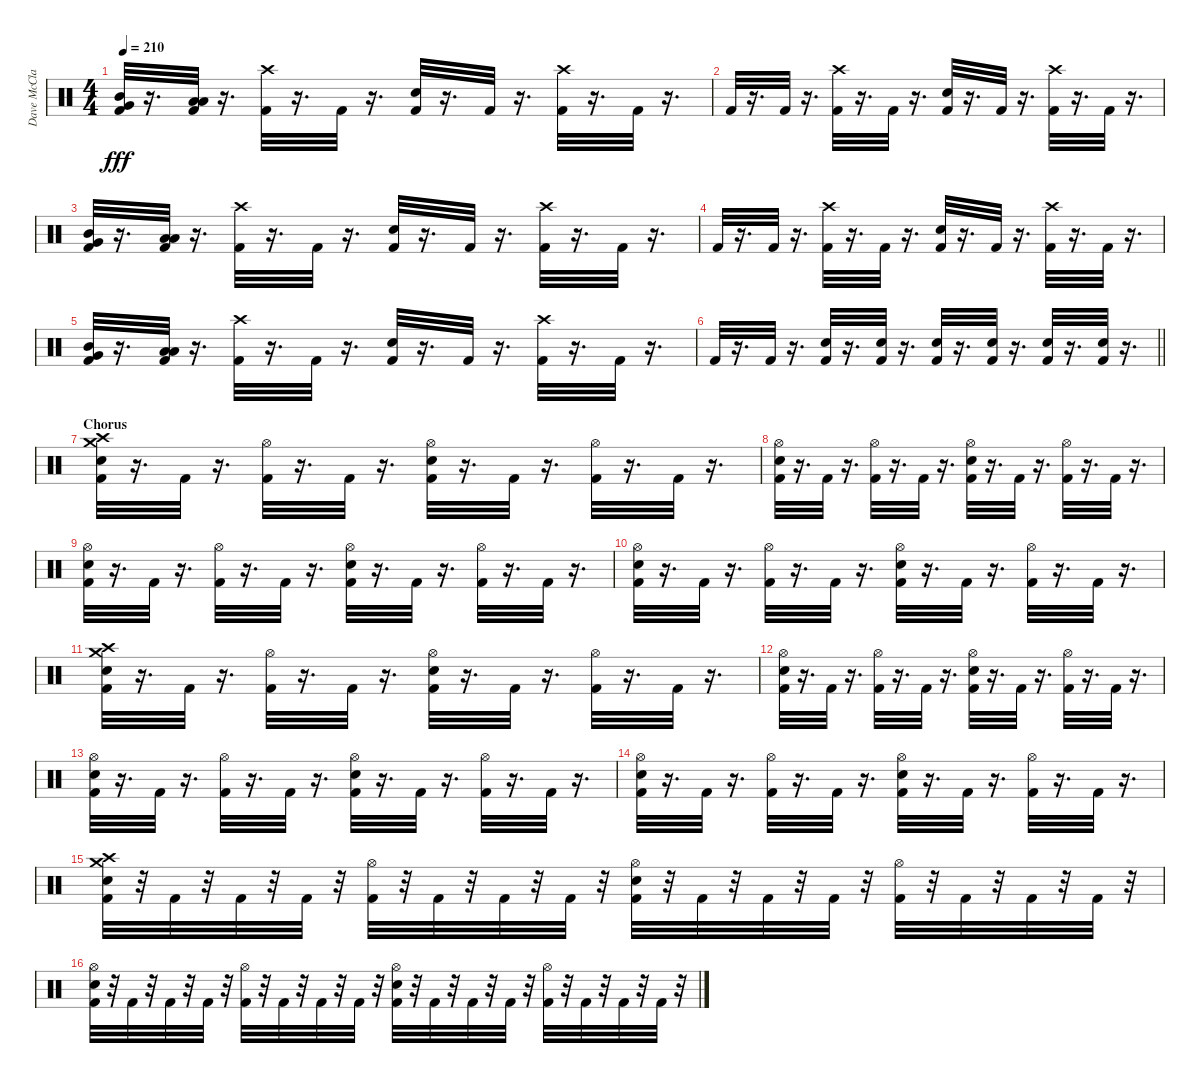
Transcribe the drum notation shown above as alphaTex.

\track ("Dave McClain" "Dave McCla") {instrument percussion}
\staff {score}
\articulation defaults
\ts (4 4)
\tempo 210
\clef neutral
\ks c
("Very Low Tom (hit)" "Mid Tom (hit)" "Kick (hit) 2").32{dy fff} r.16{d} ("Low Tom (hit)" "Low Floor Tom (hit)" "Kick (hit) 2").32 r.16{d} ("Kick (hit) 2" "Crash high (hit)").32 r.16{d} "Kick (hit) 2".32 r.16{d} ("Kick (hit) 2" "Snare (hit) 2").32 r.16{d} "Kick (hit) 2".32 r.16{d} ("Kick (hit) 2" "Crash high (hit)").32 r.16{d} "Kick (hit) 2".32 r.16{d} |
"Kick (hit) 2".32 r.16{d} "Kick (hit) 2".32 r.16{d} ("Kick (hit) 2" "Crash high (hit)").32 r.16{d} "Kick (hit) 2".32 r.16{d} ("Kick (hit) 2" "Snare (hit) 2").32 r.16{d} "Kick (hit) 2".32 r.16{d} ("Kick (hit) 2" "Crash high (hit)").32 r.16{d} "Kick (hit) 2".32 r.16{d} |
("Very Low Tom (hit)" "Mid Tom (hit)" "Kick (hit) 2").32 r.16{d} ("Kick (hit) 2" "Low Tom (hit)" "Low Floor Tom (hit)").32 r.16{d} ("Kick (hit) 2" "Crash high (hit)").32 r.16{d} "Kick (hit) 2".32 r.16{d} ("Kick (hit) 2" "Snare (hit) 2").32 r.16{d} "Kick (hit) 2".32 r.16{d} ("Kick (hit) 2" "Crash high (hit)").32 r.16{d} "Kick (hit) 2".32 r.16{d} |
"Kick (hit) 2".32 r.16{d} "Kick (hit) 2".32 r.16{d} ("Kick (hit) 2" "Crash high (hit)").32 r.16{d} "Kick (hit) 2".32 r.16{d} ("Kick (hit) 2" "Snare (hit) 2").32 r.16{d} "Kick (hit) 2".32 r.16{d} ("Kick (hit) 2" "Crash high (hit)").32 r.16{d} "Kick (hit) 2".32 r.16{d} |
("Very Low Tom (hit)" "Mid Tom (hit)" "Kick (hit) 2").32 r.16{d} ("Low Tom (hit)" "Low Floor Tom (hit)" "Kick (hit) 2").32 r.16{d} ("Kick (hit) 2" "Crash high (hit)").32 r.16{d} "Kick (hit) 2".32 r.16{d} ("Kick (hit) 2" "Snare (hit) 2").32 r.16{d} "Kick (hit) 2".32 r.16{d} ("Kick (hit) 2" "Crash high (hit)").32 r.16{d} "Kick (hit) 2".32 r.16{d} |
\barLineRight lightlight "Kick (hit) 2".32
r.16{d} "Kick (hit) 2".32 r.16{d} ("Snare (hit) 2" "Kick (hit) 2").32 r.16{d} ("Snare (hit) 2" "Kick (hit) 2").32 r.16{d} ("Kick (hit) 2" "Snare (hit) 2").32 r.16{d} ("Snare (hit) 2" "Kick (hit) 2").32 r.16{d} ("Snare (hit) 2" "Kick (hit) 2").32 r.16{d} ("Snare (hit) 2" "Kick (hit) 2").32 r.16{d} |
\section ("" "Chorus")
("Snare (hit) 2" "Crash medium (hit)" "Crash high (hit)" "Kick (hit) 2").32 r.16{d} "Kick (hit) 2".32 r.16{d} ("Hi-Hat (open)" "Kick (hit) 2").32 r.16{d} "Kick (hit) 2".32 r.16{d} ("Snare (hit) 2" "Hi-Hat (open)" "Kick (hit) 2").32 r.16{d} "Kick (hit) 2".32 r.16{d} ("Hi-Hat (open)" "Kick (hit) 2").32 r.16{d} "Kick (hit) 2".32 r.16{d} |
("Snare (hit) 2" "Hi-Hat (open)" "Kick (hit) 2").32 r.16{d} "Kick (hit) 2".32 r.16{d} ("Hi-Hat (open)" "Kick (hit) 2").32 r.16{d} "Kick (hit) 2".32 r.16{d} ("Snare (hit) 2" "Hi-Hat (open)" "Kick (hit) 2").32 r.16{d} "Kick (hit) 2".32 r.16{d} ("Hi-Hat (open)" "Kick (hit) 2").32 r.16{d} "Kick (hit) 2".32 r.16{d} |
("Snare (hit) 2" "Hi-Hat (open)" "Kick (hit) 2").32 r.16{d} "Kick (hit) 2".32 r.16{d} ("Hi-Hat (open)" "Kick (hit) 2").32 r.16{d} "Kick (hit) 2".32 r.16{d} ("Snare (hit) 2" "Hi-Hat (open)" "Kick (hit) 2").32 r.16{d} "Kick (hit) 2".32 r.16{d} ("Hi-Hat (open)" "Kick (hit) 2").32 r.16{d} "Kick (hit) 2".32 r.16{d} |
("Snare (hit) 2" "Hi-Hat (open)" "Kick (hit) 2").32 r.16{d} "Kick (hit) 2".32 r.16{d} ("Hi-Hat (open)" "Kick (hit) 2").32 r.16{d} "Kick (hit) 2".32 r.16{d} ("Snare (hit) 2" "Hi-Hat (open)" "Kick (hit) 2").32 r.16{d} "Kick (hit) 2".32 r.16{d} ("Hi-Hat (open)" "Kick (hit) 2").32 r.16{d} "Kick (hit) 2".32 r.16{d} |
("Snare (hit) 2" "Crash medium (hit)" "Crash high (hit)" "Kick (hit) 2").32 r.16{d} "Kick (hit) 2".32 r.16{d} ("Hi-Hat (open)" "Kick (hit) 2").32 r.16{d} "Kick (hit) 2".32 r.16{d} ("Snare (hit) 2" "Hi-Hat (open)" "Kick (hit) 2").32 r.16{d} "Kick (hit) 2".32 r.16{d} ("Hi-Hat (open)" "Kick (hit) 2").32 r.16{d} "Kick (hit) 2".32 r.16{d} |
("Snare (hit) 2" "Hi-Hat (open)" "Kick (hit) 2").32 r.16{d} "Kick (hit) 2".32 r.16{d} ("Hi-Hat (open)" "Kick (hit) 2").32 r.16{d} "Kick (hit) 2".32 r.16{d} ("Snare (hit) 2" "Hi-Hat (open)" "Kick (hit) 2").32 r.16{d} "Kick (hit) 2".32 r.16{d} ("Hi-Hat (open)" "Kick (hit) 2").32 r.16{d} "Kick (hit) 2".32 r.16{d} |
("Snare (hit) 2" "Hi-Hat (open)" "Kick (hit) 2").32 r.16{d} "Kick (hit) 2".32 r.16{d} ("Hi-Hat (open)" "Kick (hit) 2").32 r.16{d} "Kick (hit) 2".32 r.16{d} ("Snare (hit) 2" "Hi-Hat (open)" "Kick (hit) 2").32 r.16{d} "Kick (hit) 2".32 r.16{d} ("Hi-Hat (open)" "Kick (hit) 2").32 r.16{d} "Kick (hit) 2".32 r.16{d} |
("Snare (hit) 2" "Hi-Hat (open)" "Kick (hit) 2").32 r.16{d} "Kick (hit) 2".32 r.16{d} ("Hi-Hat (open)" "Kick (hit) 2").32 r.16{d} "Kick (hit) 2".32 r.16{d} ("Snare (hit) 2" "Hi-Hat (open)" "Kick (hit) 2").32 r.16{d} "Kick (hit) 2".32 r.16{d} ("Hi-Hat (open)" "Kick (hit) 2").32 r.16{d} "Kick (hit) 2".32 r.16{d} |
("Snare (hit) 2" "Crash medium (hit)" "Crash high (hit)" "Kick (hit) 2").32 r.32 "Kick (hit) 2".32 r.32 "Kick (hit) 2".32 r.32 "Kick (hit) 2".32 r.32 ("Hi-Hat (open)" "Kick (hit) 2").32 r.32 "Kick (hit) 2".32 r.32 "Kick (hit) 2".32 r.32 "Kick (hit) 2".32 r.32 ("Snare (hit) 2" "Hi-Hat (open)" "Kick (hit) 2").32 r.32 "Kick (hit) 2".32 r.32 "Kick (hit) 2".32 r.32 "Kick (hit) 2".32 r.32 ("Hi-Hat (open)" "Kick (hit) 2").32 r.32 "Kick (hit) 2".32 r.32 "Kick (hit) 2".32 r.32 "Kick (hit) 2".32 r.32 |
("Snare (hit) 2" "Hi-Hat (open)" "Kick (hit) 2").32 r.32 "Kick (hit) 2".32 r.32 "Kick (hit) 2".32 r.32 "Kick (hit) 2".32 r.32 ("Hi-Hat (open)" "Kick (hit) 2").32 r.32 "Kick (hit) 2".32 r.32 "Kick (hit) 2".32 r.32 "Kick (hit) 2".32 r.32 ("Snare (hit) 2" "Hi-Hat (open)" "Kick (hit) 2").32 r.32 "Kick (hit) 2".32 r.32 "Kick (hit) 2".32 r.32 "Kick (hit) 2".32 r.32 ("Hi-Hat (open)" "Kick (hit) 2").32 r.32 "Kick (hit) 2".32 r.32 "Kick (hit) 2".32 r.32 "Kick (hit) 2".32 r.32
